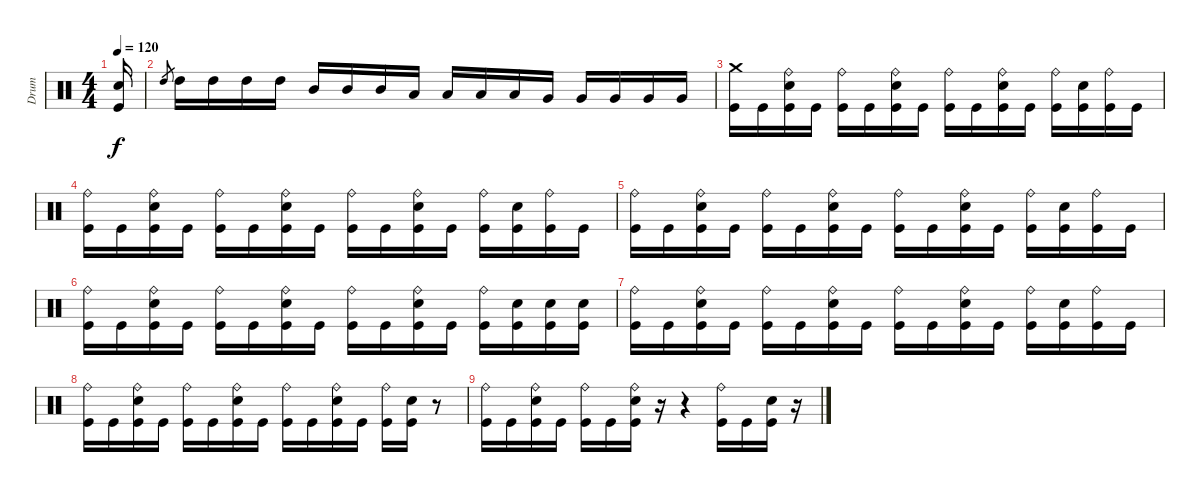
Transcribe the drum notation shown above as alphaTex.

\track ("Drum" "Drum") {instrument percussion}
\staff {score}
\articulation defaults
\ts (4 4)
\tempo 120
\clef neutral
\ks c
("Electric Snare (hit)" "Kick (hit)").16{dy f} |
"High Tom (hit)".8{gr} "High Tom (hit)".16 "High Tom (hit)".16 "High Tom (hit)".16 "High Tom (hit)".16 "Mid Tom (hit)".16 "Mid Tom (hit)".16 "Mid Tom (hit)".16 "Low Tom (hit)".16 "Low Tom (hit)".16 "Low Tom (hit)".16 "Low Tom (hit)".16 "Very Low Tom (hit)".16 "Very Low Tom (hit)".16 "Very Low Tom (hit)".16 "Very Low Tom (hit)".16 "Very Low Tom (hit)".16 |
("Crash medium (hit)" "Kick (hit)").16 "Kick (hit)".16 ("Ride (bell)" "Electric Snare (hit)" "Kick (hit)").16 "Kick (hit)".16 ("Ride (bell)" "Kick (hit)").16 "Kick (hit)".16 ("Ride (bell)" "Electric Snare (hit)" "Kick (hit)").16 "Kick (hit)".16 ("Ride (bell)" "Kick (hit)").16 "Kick (hit)".16 ("Ride (bell)" "Electric Snare (hit)" "Kick (hit)").16 "Kick (hit)".16 ("Ride (bell)" "Kick (hit)").16 ("Electric Snare (hit)" "Kick (hit)").16 ("Ride (bell)" "Kick (hit)").16 "Kick (hit)".16 |
("Ride (bell)" "Kick (hit)").16 "Kick (hit)".16 ("Ride (bell)" "Electric Snare (hit)" "Kick (hit)").16 "Kick (hit)".16 ("Ride (bell)" "Kick (hit)").16 "Kick (hit)".16 ("Ride (bell)" "Electric Snare (hit)" "Kick (hit)").16 "Kick (hit)".16 ("Ride (bell)" "Kick (hit)").16 "Kick (hit)".16 ("Ride (bell)" "Electric Snare (hit)" "Kick (hit)").16 "Kick (hit)".16 ("Ride (bell)" "Kick (hit)").16 ("Electric Snare (hit)" "Kick (hit)").16 ("Ride (bell)" "Kick (hit)").16 "Kick (hit)".16 |
("Ride (bell)" "Kick (hit)").16 "Kick (hit)".16 ("Ride (bell)" "Electric Snare (hit)" "Kick (hit)").16 "Kick (hit)".16 ("Ride (bell)" "Kick (hit)").16 "Kick (hit)".16 ("Ride (bell)" "Electric Snare (hit)" "Kick (hit)").16 "Kick (hit)".16 ("Ride (bell)" "Kick (hit)").16 "Kick (hit)".16 ("Ride (bell)" "Electric Snare (hit)" "Kick (hit)").16 "Kick (hit)".16 ("Ride (bell)" "Kick (hit)").16 ("Electric Snare (hit)" "Kick (hit)").16 ("Ride (bell)" "Kick (hit)").16 "Kick (hit)".16 |
("Ride (bell)" "Kick (hit)").16 "Kick (hit)".16 ("Ride (bell)" "Electric Snare (hit)" "Kick (hit)").16 "Kick (hit)".16 ("Ride (bell)" "Kick (hit)").16 "Kick (hit)".16 ("Ride (bell)" "Electric Snare (hit)" "Kick (hit)").16 "Kick (hit)".16 ("Ride (bell)" "Kick (hit)").16 "Kick (hit)".16 ("Ride (bell)" "Electric Snare (hit)" "Kick (hit)").16 "Kick (hit)".16 ("Ride (bell)" "Kick (hit)").16 ("Electric Snare (hit)" "Kick (hit)").16 ("Electric Snare (hit)" "Kick (hit)").16 ("Electric Snare (hit)" "Kick (hit)").16 |
("Ride (bell)" "Kick (hit)").16 "Kick (hit)".16 ("Ride (bell)" "Electric Snare (hit)" "Kick (hit)").16 "Kick (hit)".16 ("Ride (bell)" "Kick (hit)").16 "Kick (hit)".16 ("Ride (bell)" "Electric Snare (hit)" "Kick (hit)").16 "Kick (hit)".16 ("Ride (bell)" "Kick (hit)").16 "Kick (hit)".16 ("Ride (bell)" "Electric Snare (hit)" "Kick (hit)").16 "Kick (hit)".16 ("Ride (bell)" "Kick (hit)").16 ("Electric Snare (hit)" "Kick (hit)").16 ("Ride (bell)" "Kick (hit)").16 "Kick (hit)".16 |
("Ride (bell)" "Kick (hit)").16 "Kick (hit)".16 ("Ride (bell)" "Electric Snare (hit)" "Kick (hit)").16 "Kick (hit)".16 ("Ride (bell)" "Kick (hit)").16 "Kick (hit)".16 ("Ride (bell)" "Electric Snare (hit)" "Kick (hit)").16 "Kick (hit)".16 ("Ride (bell)" "Kick (hit)").16 "Kick (hit)".16 ("Ride (bell)" "Electric Snare (hit)" "Kick (hit)").16 "Kick (hit)".16 ("Ride (bell)" "Kick (hit)").16 ("Electric Snare (hit)" "Kick (hit)").16 r.8 |
("Ride (bell)" "Kick (hit)").16 "Kick (hit)".16 ("Ride (bell)" "Electric Snare (hit)" "Kick (hit)").16 "Kick (hit)".16 ("Ride (bell)" "Kick (hit)").16 "Kick (hit)".16 ("Ride (bell)" "Electric Snare (hit)" "Kick (hit)").16 r.16 r.4 ("Ride (bell)" "Kick (hit)").16 "Kick (hit)".16 ("Electric Snare (hit)" "Kick (hit)").16 r.16
